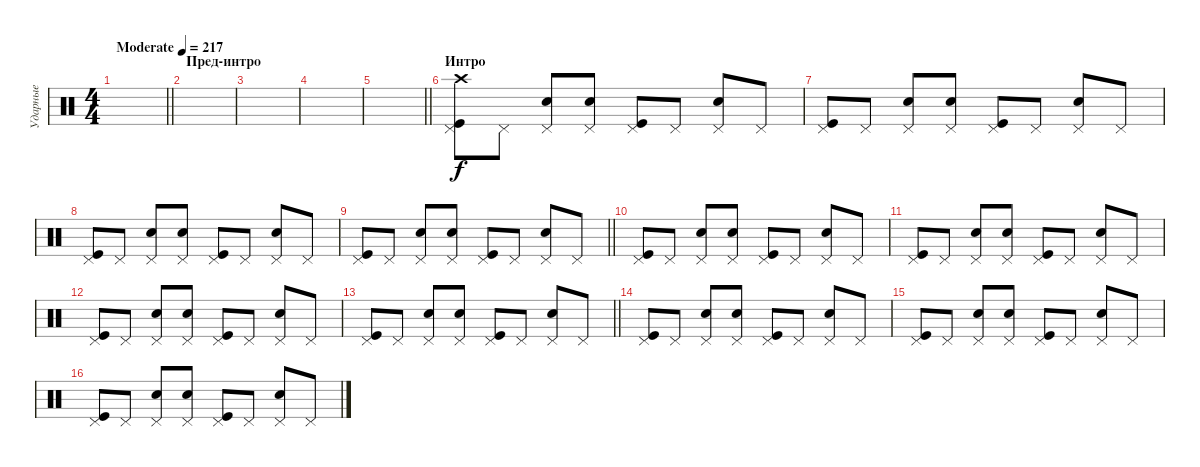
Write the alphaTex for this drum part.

\track ("Ударные" "Ударные") {instrument percussion}
\staff {score}
\articulation defaults
\ts (4 4)
\tempo (217 "Moderate")
\clef neutral
\barLineRight lightlight
\ks c
|
\section ("" "Пред-интро")
|
|
|
\barLineRight lightlight
|
\section ("" "Интро")
("Pedal Hi-Hat (hit)" "Kick (hit)" "Crash high (hit)").8 "Pedal Hi-Hat (hit)".8 ("Pedal Hi-Hat (hit)" "Snare (hit) 2").8 ("Pedal Hi-Hat (hit)" "Snare (hit) 2").8 ("Pedal Hi-Hat (hit)" "Kick (hit)").8 "Pedal Hi-Hat (hit)".8 ("Pedal Hi-Hat (hit)" "Snare (hit) 2").8 "Pedal Hi-Hat (hit)".8 |
("Pedal Hi-Hat (hit)" "Kick (hit)").8 "Pedal Hi-Hat (hit)".8 ("Pedal Hi-Hat (hit)" "Snare (hit) 2").8 ("Pedal Hi-Hat (hit)" "Snare (hit) 2").8 ("Pedal Hi-Hat (hit)" "Kick (hit)").8 "Pedal Hi-Hat (hit)".8 ("Pedal Hi-Hat (hit)" "Snare (hit) 2").8 "Pedal Hi-Hat (hit)".8 |
("Pedal Hi-Hat (hit)" "Kick (hit)").8 "Pedal Hi-Hat (hit)".8 ("Pedal Hi-Hat (hit)" "Snare (hit) 2").8 ("Pedal Hi-Hat (hit)" "Snare (hit) 2").8 ("Pedal Hi-Hat (hit)" "Kick (hit)").8 "Pedal Hi-Hat (hit)".8 ("Pedal Hi-Hat (hit)" "Snare (hit) 2").8 "Pedal Hi-Hat (hit)".8 |
\barLineRight lightlight
("Pedal Hi-Hat (hit)" "Kick (hit)").8 "Pedal Hi-Hat (hit)".8 ("Pedal Hi-Hat (hit)" "Snare (hit) 2").8 ("Pedal Hi-Hat (hit)" "Snare (hit) 2").8 ("Pedal Hi-Hat (hit)" "Kick (hit)").8 "Pedal Hi-Hat (hit)".8 ("Pedal Hi-Hat (hit)" "Snare (hit) 2").8 "Pedal Hi-Hat (hit)".8 |
("Pedal Hi-Hat (hit)" "Kick (hit)").8 "Pedal Hi-Hat (hit)".8 ("Pedal Hi-Hat (hit)" "Snare (hit) 2").8 ("Pedal Hi-Hat (hit)" "Snare (hit) 2").8 ("Pedal Hi-Hat (hit)" "Kick (hit)").8 "Pedal Hi-Hat (hit)".8 ("Pedal Hi-Hat (hit)" "Snare (hit) 2").8 "Pedal Hi-Hat (hit)".8 |
("Pedal Hi-Hat (hit)" "Kick (hit)").8 "Pedal Hi-Hat (hit)".8 ("Pedal Hi-Hat (hit)" "Snare (hit) 2").8 ("Pedal Hi-Hat (hit)" "Snare (hit) 2").8 ("Pedal Hi-Hat (hit)" "Kick (hit)").8 "Pedal Hi-Hat (hit)".8 ("Pedal Hi-Hat (hit)" "Snare (hit) 2").8 "Pedal Hi-Hat (hit)".8 |
("Pedal Hi-Hat (hit)" "Kick (hit)").8 "Pedal Hi-Hat (hit)".8 ("Pedal Hi-Hat (hit)" "Snare (hit) 2").8 ("Pedal Hi-Hat (hit)" "Snare (hit) 2").8 ("Pedal Hi-Hat (hit)" "Kick (hit)").8 "Pedal Hi-Hat (hit)".8 ("Pedal Hi-Hat (hit)" "Snare (hit) 2").8 "Pedal Hi-Hat (hit)".8 |
\barLineRight lightlight
("Pedal Hi-Hat (hit)" "Kick (hit)").8 "Pedal Hi-Hat (hit)".8 ("Pedal Hi-Hat (hit)" "Snare (hit) 2").8 ("Pedal Hi-Hat (hit)" "Snare (hit) 2").8 ("Pedal Hi-Hat (hit)" "Kick (hit)").8 "Pedal Hi-Hat (hit)".8 ("Pedal Hi-Hat (hit)" "Snare (hit) 2").8 "Pedal Hi-Hat (hit)".8 |
("Pedal Hi-Hat (hit)" "Kick (hit)").8 "Pedal Hi-Hat (hit)".8 ("Pedal Hi-Hat (hit)" "Snare (hit) 2").8 ("Pedal Hi-Hat (hit)" "Snare (hit) 2").8 ("Pedal Hi-Hat (hit)" "Kick (hit)").8 "Pedal Hi-Hat (hit)".8 ("Pedal Hi-Hat (hit)" "Snare (hit) 2").8 "Pedal Hi-Hat (hit)".8 |
("Pedal Hi-Hat (hit)" "Kick (hit)").8 "Pedal Hi-Hat (hit)".8 ("Pedal Hi-Hat (hit)" "Snare (hit) 2").8 ("Pedal Hi-Hat (hit)" "Snare (hit) 2").8 ("Pedal Hi-Hat (hit)" "Kick (hit)").8 "Pedal Hi-Hat (hit)".8 ("Pedal Hi-Hat (hit)" "Snare (hit) 2").8 "Pedal Hi-Hat (hit)".8 |
("Pedal Hi-Hat (hit)" "Kick (hit)").8 "Pedal Hi-Hat (hit)".8 ("Pedal Hi-Hat (hit)" "Snare (hit) 2").8 ("Pedal Hi-Hat (hit)" "Snare (hit) 2").8 ("Pedal Hi-Hat (hit)" "Kick (hit)").8 "Pedal Hi-Hat (hit)".8 ("Pedal Hi-Hat (hit)" "Snare (hit) 2").8 "Pedal Hi-Hat (hit)".8
